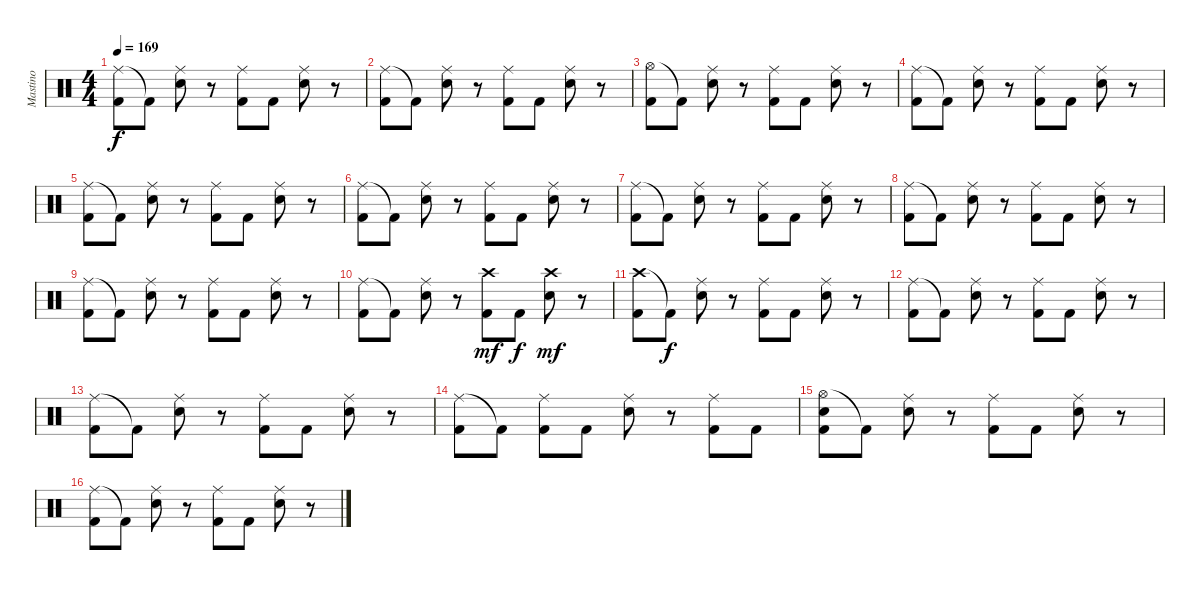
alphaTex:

\track ("Mastino" "Mastino") {instrument percussion}
\staff {score}
\articulation defaults
\ts (4 4)
\tempo 169
\clef neutral
\ks c
("Ride (middle)" "Kick (hit) 2").8{dy f} "Kick (hit) 2"{t}.8 ("Ride (middle)" "Electric Snare (hit)").8 r.8 ("Ride (middle)" "Kick (hit) 2").8 "Kick (hit) 2".8 ("Ride (middle)" "Electric Snare (hit)").8 r.8 |
("Ride (middle)" "Kick (hit) 2").8 "Kick (hit) 2"{t}.8 ("Ride (middle)" "Electric Snare (hit)").8 r.8 ("Ride (middle)" "Kick (hit) 2").8 "Kick (hit) 2".8 ("Ride (middle)" "Electric Snare (hit)").8 r.8 |
("Hi-Hat (open)" "Kick (hit) 2").8 "Kick (hit) 2"{t}.8 ("Ride (middle)" "Electric Snare (hit)").8 r.8 ("Ride (middle)" "Kick (hit) 2").8 "Kick (hit) 2".8 ("Ride (middle)" "Electric Snare (hit)").8 r.8 |
("Ride (middle)" "Kick (hit) 2").8 "Kick (hit) 2"{t}.8 ("Ride (middle)" "Electric Snare (hit)").8 r.8 ("Ride (middle)" "Kick (hit) 2").8 "Kick (hit) 2".8 ("Ride (middle)" "Electric Snare (hit)").8 r.8 |
("Ride (middle)" "Kick (hit) 2").8 "Kick (hit) 2"{t}.8 ("Ride (middle)" "Electric Snare (hit)").8 r.8 ("Ride (middle)" "Kick (hit) 2").8 "Kick (hit) 2".8 ("Ride (middle)" "Electric Snare (hit)").8 r.8 |
("Ride (middle)" "Kick (hit) 2").8 "Kick (hit) 2"{t}.8 ("Ride (middle)" "Electric Snare (hit)").8 r.8 ("Ride (middle)" "Kick (hit) 2").8 "Kick (hit) 2".8 ("Ride (middle)" "Electric Snare (hit)").8 r.8 |
("Ride (middle)" "Kick (hit) 2").8 "Kick (hit) 2"{t}.8 ("Ride (middle)" "Electric Snare (hit)").8 r.8 ("Ride (middle)" "Kick (hit) 2").8 "Kick (hit) 2".8 ("Ride (middle)" "Electric Snare (hit)").8 r.8 |
("Ride (middle)" "Kick (hit) 2").8 "Kick (hit) 2"{t}.8 ("Ride (middle)" "Electric Snare (hit)").8 r.8 ("Ride (middle)" "Kick (hit) 2").8 "Kick (hit) 2".8 ("Ride (middle)" "Electric Snare (hit)").8 r.8 |
("Ride (middle)" "Kick (hit) 2").8 "Kick (hit) 2"{t}.8 ("Ride (middle)" "Electric Snare (hit)").8 r.8 ("Ride (middle)" "Kick (hit) 2").8 "Kick (hit) 2".8 ("Ride (middle)" "Electric Snare (hit)").8 r.8 |
("Ride (middle)" "Kick (hit) 2").8 "Kick (hit) 2"{t}.8 ("Ride (middle)" "Electric Snare (hit)").8 r.8 ("Crash high (hit)" "Kick (hit) 2").8{dy mf} "Kick (hit) 2".8{dy f} ("Crash high (hit)" "Electric Snare (hit)").8{dy mf} r.8 |
("Crash high (hit)" "Kick (hit) 2").8 "Kick (hit) 2"{t}.8{dy f} ("Ride (middle)" "Electric Snare (hit)").8 r.8 ("Ride (middle)" "Kick (hit) 2").8 "Kick (hit) 2".8 ("Ride (middle)" "Electric Snare (hit)").8 r.8 |
("Ride (middle)" "Kick (hit) 2").8 "Kick (hit) 2"{t}.8 ("Ride (middle)" "Electric Snare (hit)").8 r.8 ("Ride (middle)" "Kick (hit) 2").8 "Kick (hit) 2".8 ("Ride (middle)" "Electric Snare (hit)").8 r.8 |
("Ride (middle)" "Kick (hit) 2").8 "Kick (hit) 2"{t}.8 ("Ride (middle)" "Electric Snare (hit)").8 r.8 ("Ride (middle)" "Kick (hit) 2").8 "Kick (hit) 2".8 ("Ride (middle)" "Electric Snare (hit)").8 r.8 |
("Ride (middle)" "Kick (hit) 2").8 "Kick (hit) 2"{t}.8 ("Ride (middle)" "Kick (hit) 2").8 "Kick (hit) 2".8 ("Ride (middle)" "Electric Snare (hit)").8 r.8 ("Ride (middle)" "Kick (hit) 2").8 "Kick (hit) 2".8 |
("Hi-Hat (open)" "Electric Snare (hit)" "Kick (hit) 2").8 "Kick (hit) 2"{t}.8 ("Ride (middle)" "Electric Snare (hit)").8 r.8 ("Ride (middle)" "Kick (hit) 2").8 "Kick (hit) 2".8 ("Ride (middle)" "Electric Snare (hit)").8 r.8 |
("Ride (middle)" "Kick (hit) 2").8 "Kick (hit) 2"{t}.8 ("Ride (middle)" "Electric Snare (hit)").8 r.8 ("Ride (middle)" "Kick (hit) 2").8 "Kick (hit) 2".8 ("Ride (middle)" "Electric Snare (hit)").8 r.8
